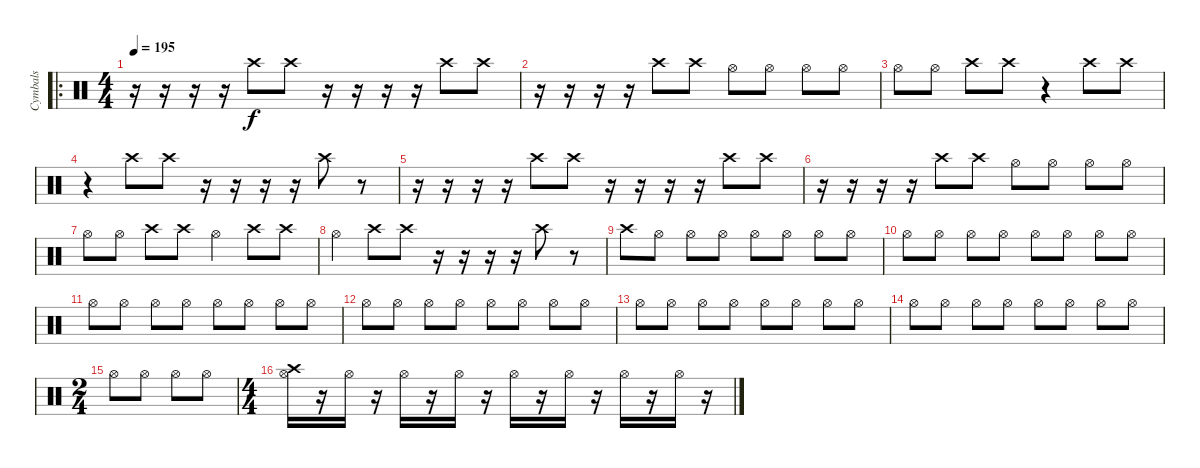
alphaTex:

\track ("Cymbals" "Cymbals") {instrument percussion}
\staff {score}
\articulation defaults
\ro
\ts (4 4)
\tempo 195
\clef neutral
\ks c
r.16{dy f} r.16 r.16 r.16 "Crash high (hit)".8 "Crash high (hit)".8 r.16 r.16 r.16 r.16 "Crash high (hit)".8 "Crash high (hit)".8 |
r.16 r.16 r.16 r.16 "Crash high (hit)".8 "Crash high (hit)".8 "Hi-Hat (open)".8 "Hi-Hat (open)".8 "Hi-Hat (open)".8 "Hi-Hat (open)".8 |
"Hi-Hat (open)".8 "Hi-Hat (open)".8 "Crash high (hit)".8 "Crash high (hit)".8 r.4 "Crash high (hit)".8 "Crash high (hit)".8 |
r.4 "Crash high (hit)".8 "Crash high (hit)".8 r.16 r.16 r.16 r.16 "Crash high (hit)".8 r.8 |
r.16 r.16 r.16 r.16 "Crash high (hit)".8 "Crash high (hit)".8 r.16 r.16 r.16 r.16 "Crash high (hit)".8 "Crash high (hit)".8 |
r.16 r.16 r.16 r.16 "Crash high (hit)".8 "Crash high (hit)".8 "Hi-Hat (open)".8 "Hi-Hat (open)".8 "Hi-Hat (open)".8 "Hi-Hat (open)".8 |
"Hi-Hat (open)".8 "Hi-Hat (open)".8 "Crash high (hit)".8 "Crash high (hit)".8 "Hi-Hat (open)".4 "Crash high (hit)".8 "Crash high (hit)".8 |
"Hi-Hat (open)".4 "Crash high (hit)".8 "Crash high (hit)".8 r.16 r.16 r.16 r.16 "Crash high (hit)".8 r.8 |
"Crash high (hit)".8 "Hi-Hat (open)".8 "Hi-Hat (open)".8 "Hi-Hat (open)".8 "Hi-Hat (open)".8 "Hi-Hat (open)".8 "Hi-Hat (open)".8 "Hi-Hat (open)".8 |
"Hi-Hat (open)".8 "Hi-Hat (open)".8 "Hi-Hat (open)".8 "Hi-Hat (open)".8 "Hi-Hat (open)".8 "Hi-Hat (open)".8 "Hi-Hat (open)".8 "Hi-Hat (open)".8 |
"Hi-Hat (open)".8 "Hi-Hat (open)".8 "Hi-Hat (open)".8 "Hi-Hat (open)".8 "Hi-Hat (open)".8 "Hi-Hat (open)".8 "Hi-Hat (open)".8 "Hi-Hat (open)".8 |
"Hi-Hat (open)".8 "Hi-Hat (open)".8 "Hi-Hat (open)".8 "Hi-Hat (open)".8 "Hi-Hat (open)".8 "Hi-Hat (open)".8 "Hi-Hat (open)".8 "Hi-Hat (open)".8 |
"Hi-Hat (open)".8 "Hi-Hat (open)".8 "Hi-Hat (open)".8 "Hi-Hat (open)".8 "Hi-Hat (open)".8 "Hi-Hat (open)".8 "Hi-Hat (open)".8 "Hi-Hat (open)".8 |
"Hi-Hat (open)".8 "Hi-Hat (open)".8 "Hi-Hat (open)".8 "Hi-Hat (open)".8 "Hi-Hat (open)".8 "Hi-Hat (open)".8 "Hi-Hat (open)".8 "Hi-Hat (open)".8 |
\ts (2 4)
"Hi-Hat (open)".8 "Hi-Hat (open)".8 "Hi-Hat (open)".8 "Hi-Hat (open)".8 |
\ts (4 4)
("Crash high (hit)" "Hi-Hat (open)").16 r.16 "Hi-Hat (open)".16 r.16 "Hi-Hat (open)".16 r.16 "Hi-Hat (open)".16 r.16 "Hi-Hat (open)".16 r.16 "Hi-Hat (open)".16 r.16 "Hi-Hat (open)".16 r.16 "Hi-Hat (open)".16 r.16
